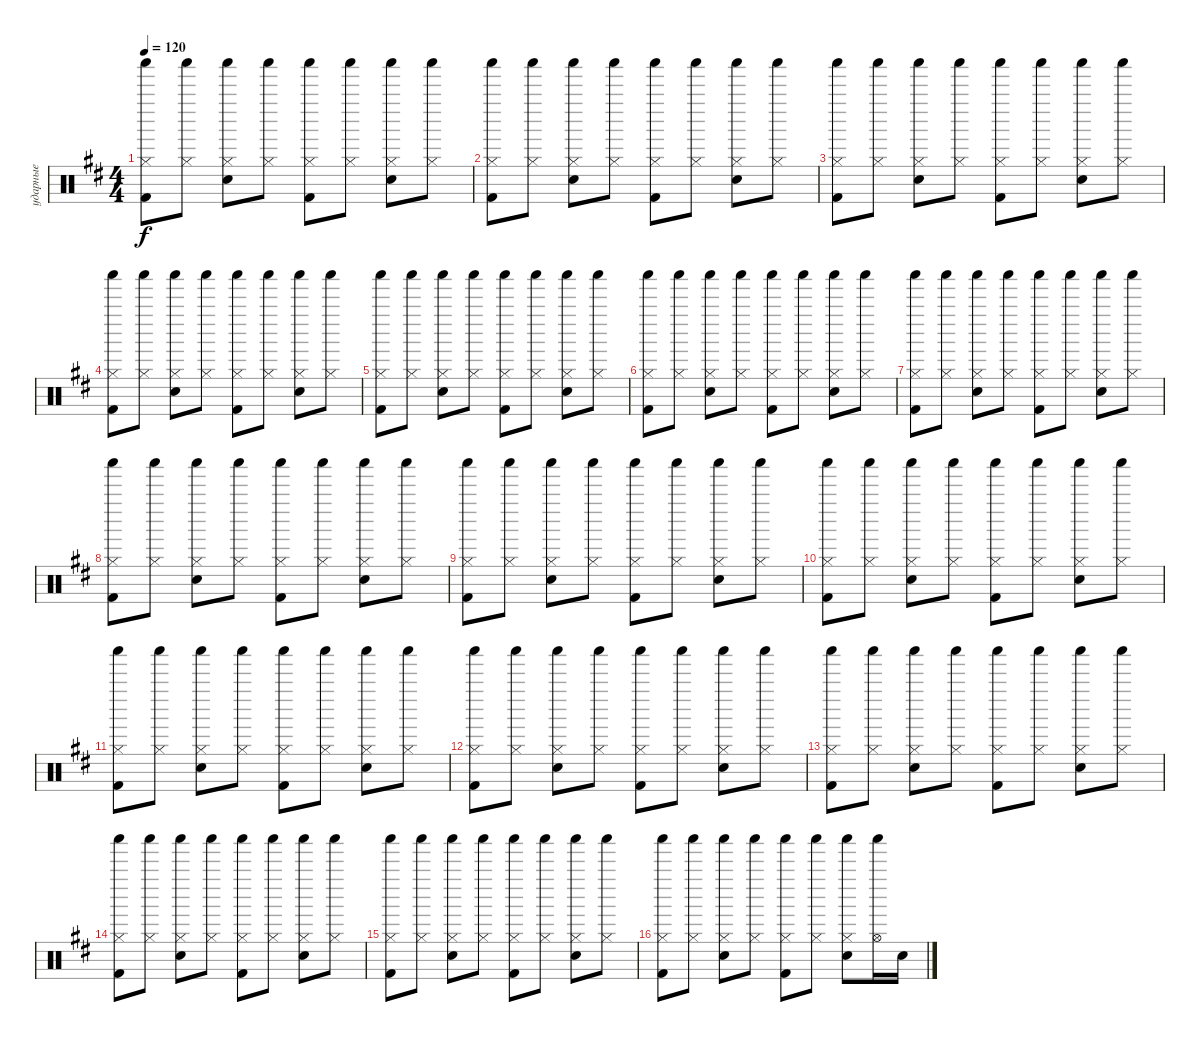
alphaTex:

\track ("ударные" "ударные") {instrument percussion}
\staff {score}
\articulation defaults
\ts (4 4)
\tempo 120
\clef neutral
\ks bminor
("Hi-Hat (closed)" "Shaker (hit)" "Kick (hit) 2").8{dy f} ("Hi-Hat (closed)" "Shaker (hit)").8 ("Hi-Hat (closed)" "Shaker (hit)" "Snare (hit) 2").8 ("Hi-Hat (closed)" "Shaker (hit)").8 ("Hi-Hat (closed)" "Shaker (hit)" "Kick (hit) 2").8 ("Hi-Hat (closed)" "Shaker (hit)").8 ("Hi-Hat (closed)" "Shaker (hit)" "Snare (hit) 2").8 ("Hi-Hat (closed)" "Shaker (hit)").8 |
("Hi-Hat (closed)" "Shaker (hit)" "Kick (hit) 2").8 ("Hi-Hat (closed)" "Shaker (hit)").8 ("Hi-Hat (closed)" "Shaker (hit)" "Snare (hit) 2").8 ("Hi-Hat (closed)" "Shaker (hit)").8 ("Hi-Hat (closed)" "Shaker (hit)" "Kick (hit) 2").8 ("Hi-Hat (closed)" "Shaker (hit)").8 ("Hi-Hat (closed)" "Shaker (hit)" "Snare (hit) 2").8 ("Hi-Hat (closed)" "Shaker (hit)").8 |
("Hi-Hat (closed)" "Shaker (hit)" "Kick (hit) 2").8 ("Hi-Hat (closed)" "Shaker (hit)").8 ("Hi-Hat (closed)" "Shaker (hit)" "Snare (hit) 2").8 ("Hi-Hat (closed)" "Shaker (hit)").8 ("Hi-Hat (closed)" "Shaker (hit)" "Kick (hit) 2").8 ("Hi-Hat (closed)" "Shaker (hit)").8 ("Hi-Hat (closed)" "Shaker (hit)" "Snare (hit) 2").8 ("Hi-Hat (closed)" "Shaker (hit)").8 |
("Hi-Hat (closed)" "Shaker (hit)" "Kick (hit) 2").8 ("Hi-Hat (closed)" "Shaker (hit)").8 ("Hi-Hat (closed)" "Shaker (hit)" "Snare (hit) 2").8 ("Hi-Hat (closed)" "Shaker (hit)").8 ("Hi-Hat (closed)" "Shaker (hit)" "Kick (hit) 2").8 ("Hi-Hat (closed)" "Shaker (hit)").8 ("Hi-Hat (closed)" "Shaker (hit)" "Snare (hit) 2").8 ("Hi-Hat (closed)" "Shaker (hit)").8 |
("Hi-Hat (closed)" "Shaker (hit)" "Kick (hit) 2").8 ("Hi-Hat (closed)" "Shaker (hit)").8 ("Hi-Hat (closed)" "Shaker (hit)" "Snare (hit) 2").8 ("Hi-Hat (closed)" "Shaker (hit)").8 ("Hi-Hat (closed)" "Shaker (hit)" "Kick (hit) 2").8 ("Hi-Hat (closed)" "Shaker (hit)").8 ("Hi-Hat (closed)" "Shaker (hit)" "Snare (hit) 2").8 ("Hi-Hat (closed)" "Shaker (hit)").8 |
("Hi-Hat (closed)" "Shaker (hit)" "Kick (hit) 2").8 ("Hi-Hat (closed)" "Shaker (hit)").8 ("Hi-Hat (closed)" "Shaker (hit)" "Snare (hit) 2").8 ("Hi-Hat (closed)" "Shaker (hit)").8 ("Hi-Hat (closed)" "Shaker (hit)" "Kick (hit) 2").8 ("Hi-Hat (closed)" "Shaker (hit)").8 ("Hi-Hat (closed)" "Shaker (hit)" "Snare (hit) 2").8 ("Hi-Hat (closed)" "Shaker (hit)").8 |
("Hi-Hat (closed)" "Shaker (hit)" "Kick (hit) 2").8 ("Hi-Hat (closed)" "Shaker (hit)").8 ("Hi-Hat (closed)" "Shaker (hit)" "Snare (hit) 2").8 ("Hi-Hat (closed)" "Shaker (hit)").8 ("Hi-Hat (closed)" "Shaker (hit)" "Kick (hit) 2").8 ("Hi-Hat (closed)" "Shaker (hit)").8 ("Hi-Hat (closed)" "Shaker (hit)" "Snare (hit) 2").8 ("Hi-Hat (closed)" "Shaker (hit)").8 |
("Hi-Hat (closed)" "Shaker (hit)" "Kick (hit) 2").8 ("Hi-Hat (closed)" "Shaker (hit)").8 ("Hi-Hat (closed)" "Shaker (hit)" "Snare (hit) 2").8 ("Hi-Hat (closed)" "Shaker (hit)").8 ("Hi-Hat (closed)" "Shaker (hit)" "Kick (hit) 2").8 ("Hi-Hat (closed)" "Shaker (hit)").8 ("Hi-Hat (closed)" "Shaker (hit)" "Snare (hit) 2").8 ("Hi-Hat (closed)" "Shaker (hit)").8 |
("Hi-Hat (closed)" "Shaker (hit)" "Kick (hit) 2").8 ("Hi-Hat (closed)" "Shaker (hit)").8 ("Hi-Hat (closed)" "Shaker (hit)" "Snare (hit) 2").8 ("Hi-Hat (closed)" "Shaker (hit)").8 ("Hi-Hat (closed)" "Shaker (hit)" "Kick (hit) 2").8 ("Hi-Hat (closed)" "Shaker (hit)").8 ("Hi-Hat (closed)" "Shaker (hit)" "Snare (hit) 2").8 ("Hi-Hat (closed)" "Shaker (hit)").8 |
("Hi-Hat (closed)" "Shaker (hit)" "Kick (hit) 2").8 ("Hi-Hat (closed)" "Shaker (hit)").8 ("Hi-Hat (closed)" "Shaker (hit)" "Snare (hit) 2").8 ("Hi-Hat (closed)" "Shaker (hit)").8 ("Hi-Hat (closed)" "Shaker (hit)" "Kick (hit) 2").8 ("Hi-Hat (closed)" "Shaker (hit)").8 ("Hi-Hat (closed)" "Shaker (hit)" "Snare (hit) 2").8 ("Hi-Hat (closed)" "Shaker (hit)").8 |
("Hi-Hat (closed)" "Shaker (hit)" "Kick (hit) 2").8 ("Hi-Hat (closed)" "Shaker (hit)").8 ("Hi-Hat (closed)" "Shaker (hit)" "Snare (hit) 2").8 ("Hi-Hat (closed)" "Shaker (hit)").8 ("Hi-Hat (closed)" "Shaker (hit)" "Kick (hit) 2").8 ("Hi-Hat (closed)" "Shaker (hit)").8 ("Hi-Hat (closed)" "Shaker (hit)" "Snare (hit) 2").8 ("Hi-Hat (closed)" "Shaker (hit)").8 |
("Hi-Hat (closed)" "Shaker (hit)" "Kick (hit) 2").8 ("Hi-Hat (closed)" "Shaker (hit)").8 ("Hi-Hat (closed)" "Shaker (hit)" "Snare (hit) 2").8 ("Hi-Hat (closed)" "Shaker (hit)").8 ("Hi-Hat (closed)" "Shaker (hit)" "Kick (hit) 2").8 ("Hi-Hat (closed)" "Shaker (hit)").8 ("Hi-Hat (closed)" "Shaker (hit)" "Snare (hit) 2").8 ("Hi-Hat (closed)" "Shaker (hit)").8 |
("Hi-Hat (closed)" "Shaker (hit)" "Kick (hit) 2").8 ("Hi-Hat (closed)" "Shaker (hit)").8 ("Hi-Hat (closed)" "Shaker (hit)" "Snare (hit) 2").8 ("Hi-Hat (closed)" "Shaker (hit)").8 ("Hi-Hat (closed)" "Shaker (hit)" "Kick (hit) 2").8 ("Hi-Hat (closed)" "Shaker (hit)").8 ("Hi-Hat (closed)" "Shaker (hit)" "Snare (hit) 2").8 ("Hi-Hat (closed)" "Shaker (hit)").8 |
("Hi-Hat (closed)" "Shaker (hit)" "Kick (hit) 2").8 ("Hi-Hat (closed)" "Shaker (hit)").8 ("Hi-Hat (closed)" "Shaker (hit)" "Snare (hit) 2").8 ("Hi-Hat (closed)" "Shaker (hit)").8 ("Hi-Hat (closed)" "Shaker (hit)" "Kick (hit) 2").8 ("Hi-Hat (closed)" "Shaker (hit)").8 ("Hi-Hat (closed)" "Shaker (hit)" "Snare (hit) 2").8 ("Hi-Hat (closed)" "Shaker (hit)").8 |
("Hi-Hat (closed)" "Shaker (hit)" "Kick (hit) 2").8 ("Hi-Hat (closed)" "Shaker (hit)").8 ("Hi-Hat (closed)" "Shaker (hit)" "Snare (hit) 2").8 ("Hi-Hat (closed)" "Shaker (hit)").8 ("Hi-Hat (closed)" "Shaker (hit)" "Kick (hit) 2").8 ("Hi-Hat (closed)" "Shaker (hit)").8 ("Hi-Hat (closed)" "Shaker (hit)" "Snare (hit) 2").8 ("Hi-Hat (closed)" "Shaker (hit)").8 |
("Hi-Hat (closed)" "Shaker (hit)" "Kick (hit) 2").8 ("Hi-Hat (closed)" "Shaker (hit)").8 ("Hi-Hat (closed)" "Shaker (hit)" "Snare (hit) 2").8 ("Hi-Hat (closed)" "Shaker (hit)").8 ("Hi-Hat (closed)" "Shaker (hit)" "Kick (hit) 2").8 ("Hi-Hat (closed)" "Shaker (hit)").8 ("Hi-Hat (closed)" "Shaker (hit)" "Snare (hit) 2").8 ("Shaker (hit)" "Hi-Hat (open)").16 "Snare (hit) 2".16
